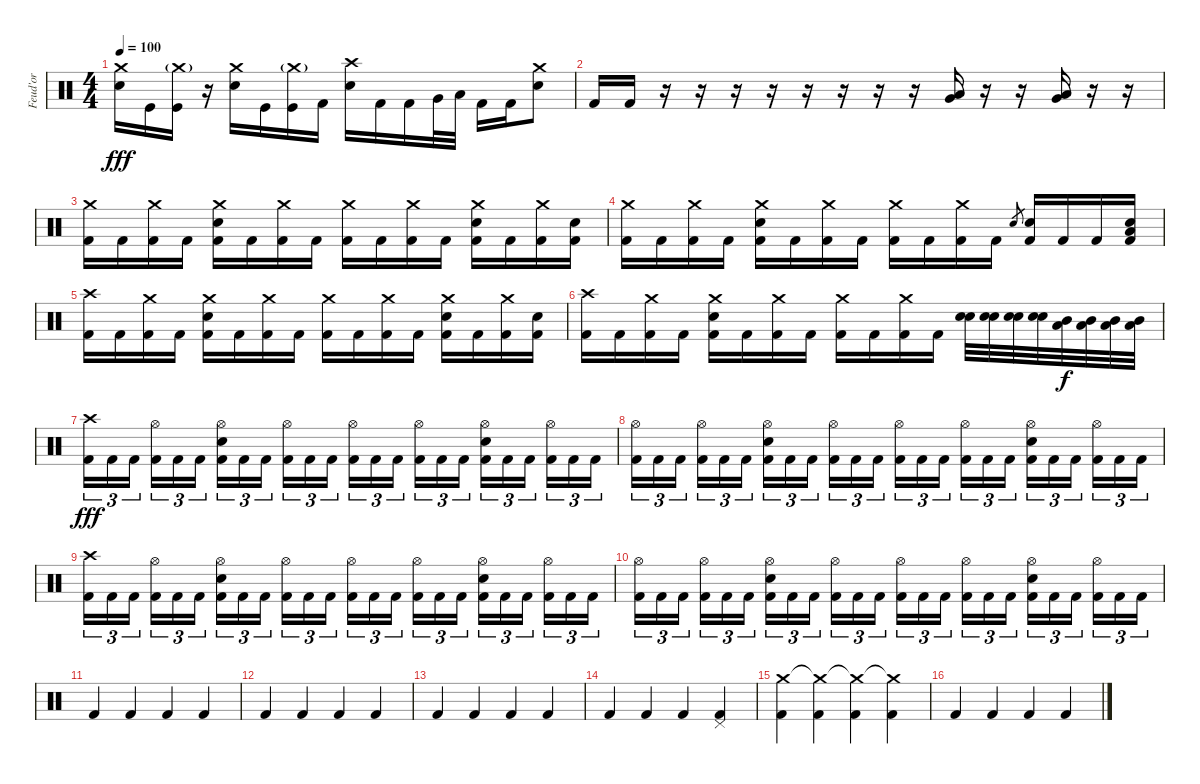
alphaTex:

\track ("Feud'or" "Feud'or") {instrument percussion}
\staff {score}
\articulation defaults
\ts (4 4)
\tempo 100
\clef neutral
\ks c
("Crash medium (hit)" "Snare (hit) 2").16{dy fff} "Kick (hit)".16 ("Crash medium (hit)"{g} "Kick (hit)").16 r.16 ("Crash medium (hit)" "Snare (hit) 2").16 "Kick (hit)".16 ("Crash medium (hit)"{g} "Kick (hit)").16 "Kick (hit) 2".16 ("Crash high (hit)" "Snare (hit) 2").16 "Kick (hit) 2".16 "Kick (hit) 2".16 "Very Low Tom (hit)".32 "Low Floor Tom (hit)".32 "Kick (hit) 2".16 "Kick (hit) 2".16 ("Crash medium (hit)" "Snare (hit) 2").8 |
"Kick (hit) 2".16 "Kick (hit) 2".16 r.16 r.16 r.16 r.16 r.16 r.16 r.16 r.16 ("Low Tom (hit)" "Very Low Tom (hit)").16 r.16 r.16 ("Very Low Tom (hit)" "Low Floor Tom (hit)").16 r.16 r.16 |
("Crash medium (hit)" "Kick (hit) 2").16 "Kick (hit) 2".16 ("Crash medium (hit)" "Kick (hit) 2").16 "Kick (hit) 2".16 ("Crash medium (hit)" "Snare (hit) 2" "Kick (hit) 2").16 "Kick (hit) 2".16 ("Crash medium (hit)" "Kick (hit) 2").16 "Kick (hit) 2".16 ("Crash medium (hit)" "Kick (hit) 2").16 "Kick (hit) 2".16 ("Crash medium (hit)" "Kick (hit) 2").16 "Kick (hit) 2".16 ("Crash medium (hit)" "Snare (hit) 2" "Kick (hit) 2").16 "Kick (hit) 2".16 ("Crash medium (hit)" "Kick (hit) 2").16 ("Snare (hit) 2" "Kick (hit) 2").16 |
("Crash medium (hit)" "Kick (hit) 2").16 "Kick (hit) 2".16 ("Crash medium (hit)" "Kick (hit) 2").16 "Kick (hit) 2".16 ("Crash medium (hit)" "Snare (hit) 2" "Kick (hit) 2").16 "Kick (hit) 2".16 ("Crash medium (hit)" "Kick (hit) 2").16 "Kick (hit) 2".16 ("Crash medium (hit)" "Kick (hit) 2").16 "Kick (hit) 2".16 ("Crash medium (hit)" "Kick (hit) 2").16 "Kick (hit) 2".16 "Snare (hit) 2".8{gr} ("Snare (hit) 2" "Kick (hit) 2").16 "Kick (hit) 2".16 "Kick (hit) 2".16 ("Low Floor Tom (hit)" "Snare (hit) 2" "Kick (hit) 2").16 |
("Crash high (hit)" "Kick (hit) 2").16 "Kick (hit) 2".16 ("Crash medium (hit)" "Kick (hit) 2").16 "Kick (hit) 2".16 ("Crash medium (hit)" "Snare (hit) 2" "Kick (hit) 2").16 "Kick (hit) 2".16 ("Crash medium (hit)" "Kick (hit) 2").16 "Kick (hit) 2".16 ("Crash medium (hit)" "Kick (hit) 2").16 "Kick (hit) 2".16 ("Crash medium (hit)" "Kick (hit) 2").16 "Kick (hit) 2".16 ("Crash medium (hit)" "Snare (hit) 2" "Kick (hit) 2").16 "Kick (hit) 2".16 ("Crash medium (hit)" "Kick (hit) 2").16 ("Snare (hit) 2" "Kick (hit) 2").16 |
("Crash high (hit)" "Kick (hit) 2").16 "Kick (hit) 2".16 ("Crash medium (hit)" "Kick (hit) 2").16 "Kick (hit) 2".16 ("Crash medium (hit)" "Snare (hit) 2" "Kick (hit) 2").16 "Kick (hit) 2".16 ("Crash medium (hit)" "Kick (hit) 2").16 "Kick (hit) 2".16 ("Crash medium (hit)" "Kick (hit) 2").16 "Kick (hit) 2".16 ("Crash medium (hit)" "Kick (hit) 2").16 "Kick (hit) 2".16 ("Electric Snare (hit)" "Snare (hit) 2").32 ("Electric Snare (hit)" "Snare (hit) 2").32 ("Electric Snare (hit)" "Snare (hit) 2").32 ("Electric Snare (hit)" "Snare (hit) 2").32 ("Low Tom (hit)" "Mid Tom (hit)").32{dy f} ("Low Tom (hit)" "Mid Tom (hit)").32 ("Low Tom (hit)" "Mid Tom (hit)").32 ("Low Tom (hit)" "Mid Tom (hit)").32 |
("Crash high (hit)" "Kick (hit) 2").16{tu (3 2) dy fff} "Kick (hit) 2".16{tu (3 2)} "Kick (hit) 2".16{tu (3 2) beam splitsecondary} ("Hi-Hat (open)" "Kick (hit) 2").16{tu (3 2)} "Kick (hit) 2".16{tu (3 2)} "Kick (hit) 2".16{tu (3 2)} ("Hi-Hat (open)" "Snare (hit) 2" "Kick (hit) 2").16{tu (3 2)} "Kick (hit) 2".16{tu (3 2)} "Kick (hit) 2".16{tu (3 2) beam splitsecondary} ("Hi-Hat (open)" "Kick (hit) 2").16{tu (3 2)} "Kick (hit) 2".16{tu (3 2)} "Kick (hit) 2".16{tu (3 2)} ("Hi-Hat (open)" "Kick (hit) 2").16{tu (3 2)} "Kick (hit) 2".16{tu (3 2)} "Kick (hit) 2".16{tu (3 2) beam splitsecondary} ("Hi-Hat (open)" "Kick (hit) 2").16{tu (3 2)} "Kick (hit) 2".16{tu (3 2)} "Kick (hit) 2".16{tu (3 2)} ("Hi-Hat (open)" "Snare (hit) 2" "Kick (hit) 2").16{tu (3 2)} "Kick (hit) 2".16{tu (3 2)} "Kick (hit) 2".16{tu (3 2) beam splitsecondary} ("Hi-Hat (open)" "Kick (hit) 2").16{tu (3 2)} "Kick (hit) 2".16{tu (3 2)} "Kick (hit) 2".16{tu (3 2)} |
("Hi-Hat (open)" "Kick (hit) 2").16{tu (3 2)} "Kick (hit) 2".16{tu (3 2)} "Kick (hit) 2".16{tu (3 2) beam splitsecondary} ("Hi-Hat (open)" "Kick (hit) 2").16{tu (3 2)} "Kick (hit) 2".16{tu (3 2)} "Kick (hit) 2".16{tu (3 2)} ("Hi-Hat (open)" "Snare (hit) 2" "Kick (hit) 2").16{tu (3 2)} "Kick (hit) 2".16{tu (3 2)} "Kick (hit) 2".16{tu (3 2) beam splitsecondary} ("Hi-Hat (open)" "Kick (hit) 2").16{tu (3 2)} "Kick (hit) 2".16{tu (3 2)} "Kick (hit) 2".16{tu (3 2)} ("Hi-Hat (open)" "Kick (hit) 2").16{tu (3 2)} "Kick (hit) 2".16{tu (3 2)} "Kick (hit) 2".16{tu (3 2) beam splitsecondary} ("Hi-Hat (open)" "Kick (hit) 2").16{tu (3 2)} "Kick (hit) 2".16{tu (3 2)} "Kick (hit) 2".16{tu (3 2)} ("Hi-Hat (open)" "Snare (hit) 2" "Kick (hit) 2").16{tu (3 2)} "Kick (hit) 2".16{tu (3 2)} "Kick (hit) 2".16{tu (3 2) beam splitsecondary} ("Hi-Hat (open)" "Kick (hit) 2").16{tu (3 2)} "Kick (hit) 2".16{tu (3 2)} "Kick (hit) 2".16{tu (3 2)} |
("Crash high (hit)" "Kick (hit) 2").16{tu (3 2)} "Kick (hit) 2".16{tu (3 2)} "Kick (hit) 2".16{tu (3 2) beam splitsecondary} ("Hi-Hat (open)" "Kick (hit) 2").16{tu (3 2)} "Kick (hit) 2".16{tu (3 2)} "Kick (hit) 2".16{tu (3 2)} ("Hi-Hat (open)" "Snare (hit) 2" "Kick (hit) 2").16{tu (3 2)} "Kick (hit) 2".16{tu (3 2)} "Kick (hit) 2".16{tu (3 2) beam splitsecondary} ("Hi-Hat (open)" "Kick (hit) 2").16{tu (3 2)} "Kick (hit) 2".16{tu (3 2)} "Kick (hit) 2".16{tu (3 2)} ("Hi-Hat (open)" "Kick (hit) 2").16{tu (3 2)} "Kick (hit) 2".16{tu (3 2)} "Kick (hit) 2".16{tu (3 2) beam splitsecondary} ("Hi-Hat (open)" "Kick (hit) 2").16{tu (3 2)} "Kick (hit) 2".16{tu (3 2)} "Kick (hit) 2".16{tu (3 2)} ("Hi-Hat (open)" "Snare (hit) 2" "Kick (hit) 2").16{tu (3 2)} "Kick (hit) 2".16{tu (3 2)} "Kick (hit) 2".16{tu (3 2) beam splitsecondary} ("Hi-Hat (open)" "Kick (hit) 2").16{tu (3 2)} "Kick (hit) 2".16{tu (3 2)} "Kick (hit) 2".16{tu (3 2)} |
("Hi-Hat (open)" "Kick (hit) 2").16{tu (3 2)} "Kick (hit) 2".16{tu (3 2)} "Kick (hit) 2".16{tu (3 2) beam splitsecondary} ("Hi-Hat (open)" "Kick (hit) 2").16{tu (3 2)} "Kick (hit) 2".16{tu (3 2)} "Kick (hit) 2".16{tu (3 2)} ("Hi-Hat (open)" "Snare (hit) 2" "Kick (hit) 2").16{tu (3 2)} "Kick (hit) 2".16{tu (3 2)} "Kick (hit) 2".16{tu (3 2) beam splitsecondary} ("Hi-Hat (open)" "Kick (hit) 2").16{tu (3 2)} "Kick (hit) 2".16{tu (3 2)} "Kick (hit) 2".16{tu (3 2)} ("Hi-Hat (open)" "Kick (hit) 2").16{tu (3 2)} "Kick (hit) 2".16{tu (3 2)} "Kick (hit) 2".16{tu (3 2) beam splitsecondary} ("Hi-Hat (open)" "Kick (hit) 2").16{tu (3 2)} "Kick (hit) 2".16{tu (3 2)} "Kick (hit) 2".16{tu (3 2)} ("Hi-Hat (open)" "Snare (hit) 2" "Kick (hit) 2").16{tu (3 2)} "Kick (hit) 2".16{tu (3 2)} "Kick (hit) 2".16{tu (3 2) beam splitsecondary} ("Hi-Hat (open)" "Kick (hit) 2").16{tu (3 2)} "Kick (hit) 2".16{tu (3 2)} "Kick (hit) 2".16{tu (3 2)} |
"Kick (hit) 2".4 "Kick (hit) 2".4 "Kick (hit) 2".4 "Kick (hit) 2".4 |
"Kick (hit) 2".4 "Kick (hit) 2".4 "Kick (hit) 2".4 "Kick (hit) 2".4 |
"Kick (hit) 2".4 "Kick (hit) 2".4 "Kick (hit) 2".4 "Kick (hit) 2".4 |
"Kick (hit) 2".4 "Kick (hit) 2".4 "Kick (hit) 2".4 ("Pedal Hi-Hat (hit)" "Kick (hit) 2").4 |
("Crash medium (hit)" "Kick (hit) 2").4 ("Crash medium (hit)"{t} "Kick (hit) 2").4 ("Crash medium (hit)"{t} "Kick (hit) 2").4 ("Crash medium (hit)"{t} "Kick (hit) 2").4 |
"Kick (hit) 2".4 "Kick (hit) 2".4 "Kick (hit) 2".4 "Kick (hit) 2".4
